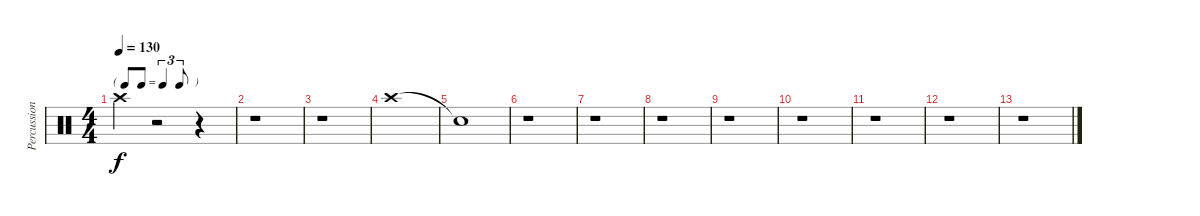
\track ("Percussion" "Percussion") {instrument percussion}
\staff {score}
\articulation defaults
\ts (4 4)
\tf triplet8th
\tempo 130
\clef neutral
\ks c "Crash high (hit)".4{dy f}
r.2 r.4 |
r.1 |
r.1 |
"Crash high (hit)".1 |
"Snare (hit)"{t}.1 |
r.1 |
r.1 |
r.1 |
r.1 |
r.1 |
r.1 |
r.1 |
r.1
